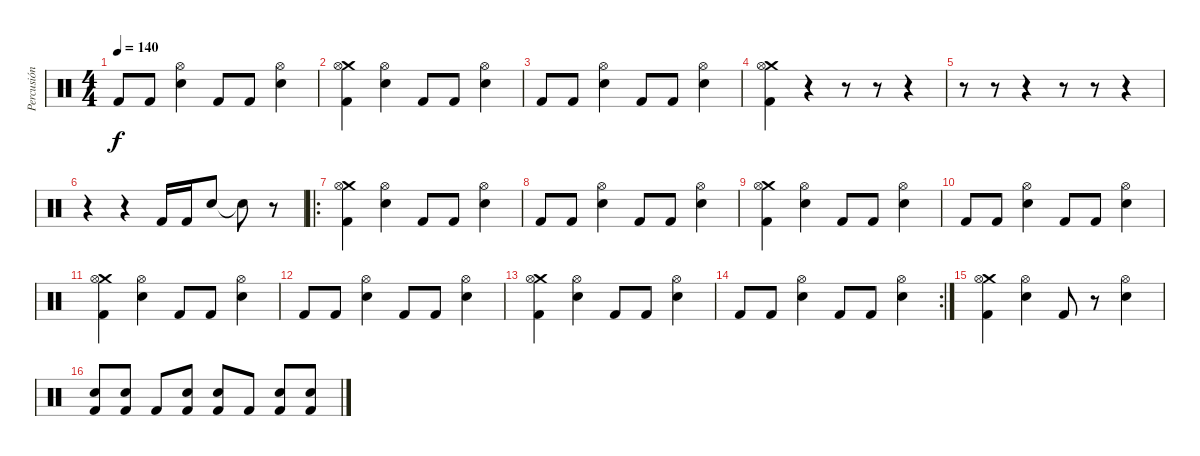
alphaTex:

\track ("Percusión" "Percusión") {instrument percussion}
\staff {score}
\articulation defaults
\ts (4 4)
\tempo 140
\clef neutral
\ks c "Kick (hit) 2".8{dy f} "Kick (hit) 2".8
("Hi-Hat (open)" "Snare (hit) 2").4 "Kick (hit) 2".8 "Kick (hit) 2".8 ("Hi-Hat (open)" "Snare (hit) 2").4 |
("Crash medium (hit)" "Hi-Hat (open)" "Kick (hit) 2").4 ("Hi-Hat (open)" "Snare (hit) 2").4 "Kick (hit) 2".8 "Kick (hit) 2".8 ("Hi-Hat (open)" "Snare (hit) 2").4 |
"Kick (hit) 2".8 "Kick (hit) 2".8 ("Hi-Hat (open)" "Snare (hit) 2").4 "Kick (hit) 2".8 "Kick (hit) 2".8 ("Hi-Hat (open)" "Snare (hit) 2").4 |
("Crash medium (hit)" "Hi-Hat (open)" "Kick (hit) 2").4 r.4 r.8 r.8 r.4 |
r.8 r.8 r.4 r.8 r.8 r.4 |
r.4 r.4 "Kick (hit) 2".16 "Kick (hit) 2".16 "Snare (hit) 2".8 "Snare (hit) 2"{t}.8 r.8 |
\ro
("Crash medium (hit)" "Hi-Hat (open)" "Kick (hit) 2").4 ("Hi-Hat (open)" "Snare (hit) 2").4 "Kick (hit) 2".8 "Kick (hit) 2".8 ("Hi-Hat (open)" "Snare (hit) 2").4 |
"Kick (hit) 2".8 "Kick (hit) 2".8 ("Hi-Hat (open)" "Snare (hit) 2").4 "Kick (hit) 2".8 "Kick (hit) 2".8 ("Hi-Hat (open)" "Snare (hit) 2").4 |
("Crash medium (hit)" "Hi-Hat (open)" "Kick (hit) 2").4 ("Hi-Hat (open)" "Snare (hit) 2").4 "Kick (hit) 2".8 "Kick (hit) 2".8 ("Hi-Hat (open)" "Snare (hit) 2").4 |
"Kick (hit) 2".8 "Kick (hit) 2".8 ("Hi-Hat (open)" "Snare (hit) 2").4 "Kick (hit) 2".8 "Kick (hit) 2".8 ("Hi-Hat (open)" "Snare (hit) 2").4 |
("Crash medium (hit)" "Hi-Hat (open)" "Kick (hit) 2").4 ("Hi-Hat (open)" "Snare (hit) 2").4 "Kick (hit) 2".8 "Kick (hit) 2".8 ("Hi-Hat (open)" "Snare (hit) 2").4 |
"Kick (hit) 2".8 "Kick (hit) 2".8 ("Hi-Hat (open)" "Snare (hit) 2").4 "Kick (hit) 2".8 "Kick (hit) 2".8 ("Hi-Hat (open)" "Snare (hit) 2").4 |
("Crash medium (hit)" "Hi-Hat (open)" "Kick (hit) 2").4 ("Hi-Hat (open)" "Snare (hit) 2").4 "Kick (hit) 2".8 "Kick (hit) 2".8 ("Hi-Hat (open)" "Snare (hit) 2").4 |
\rc 2 "Kick (hit) 2".8 "Kick (hit) 2".8
("Hi-Hat (open)" "Snare (hit) 2").4 "Kick (hit) 2".8 "Kick (hit) 2".8 ("Hi-Hat (open)" "Snare (hit) 2").4 |
("Crash medium (hit)" "Hi-Hat (open)" "Kick (hit) 2").4 ("Hi-Hat (open)" "Snare (hit) 2").4 "Kick (hit) 2".8 r.8 ("Hi-Hat (open)" "Snare (hit) 2").4 |
("Snare (hit) 2" "Kick (hit) 2").8 ("Snare (hit) 2" "Kick (hit) 2").8 "Kick (hit) 2".8 ("Snare (hit) 2" "Kick (hit) 2").8 ("Snare (hit) 2" "Kick (hit) 2").8 "Kick (hit) 2".8 ("Snare (hit) 2" "Kick (hit) 2").8 ("Snare (hit) 2" "Kick (hit) 2").8
